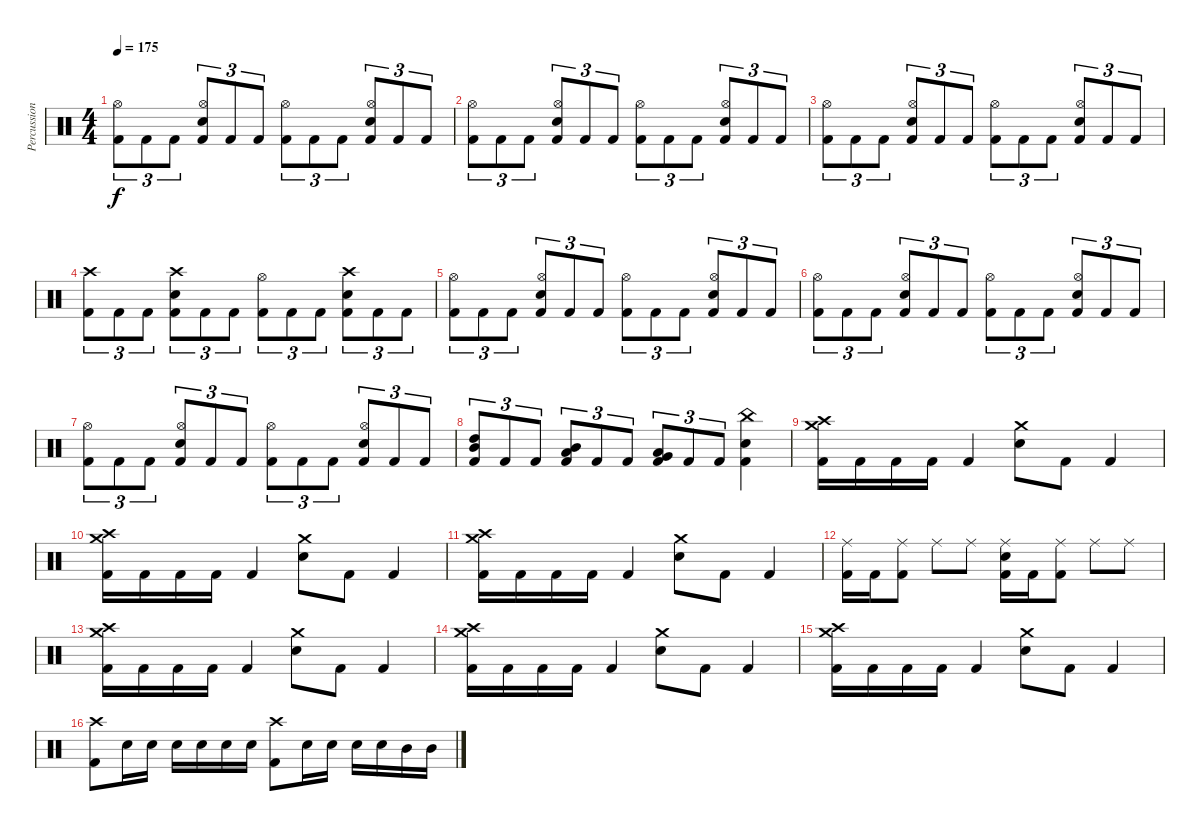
\track ("Percussion" "Percussion") {instrument percussion}
\staff {score}
\articulation defaults
\ts (4 4)
\tempo 175
\clef neutral
\ks c
("Kick (hit) 2" "Hi-Hat (open)").8{tu (3 2) dy f} "Kick (hit) 2".8{tu (3 2)} "Kick (hit) 2".8{tu (3 2)} ("Kick (hit) 2" "Electric Snare (hit)" "Hi-Hat (open)").8{tu (3 2)} "Kick (hit) 2".8{tu (3 2)} "Kick (hit) 2".8{tu (3 2)} ("Kick (hit) 2" "Hi-Hat (open)").8{tu (3 2)} "Kick (hit) 2".8{tu (3 2)} "Kick (hit) 2".8{tu (3 2)} ("Kick (hit) 2" "Electric Snare (hit)" "Hi-Hat (open)").8{tu (3 2)} "Kick (hit) 2".8{tu (3 2)} "Kick (hit) 2".8{tu (3 2)} |
("Kick (hit) 2" "Hi-Hat (open)").8{tu (3 2)} "Kick (hit) 2".8{tu (3 2)} "Kick (hit) 2".8{tu (3 2)} ("Kick (hit) 2" "Electric Snare (hit)" "Hi-Hat (open)").8{tu (3 2)} "Kick (hit) 2".8{tu (3 2)} "Kick (hit) 2".8{tu (3 2)} ("Kick (hit) 2" "Hi-Hat (open)").8{tu (3 2)} "Kick (hit) 2".8{tu (3 2)} "Kick (hit) 2".8{tu (3 2)} ("Kick (hit) 2" "Electric Snare (hit)" "Hi-Hat (open)").8{tu (3 2)} "Kick (hit) 2".8{tu (3 2)} "Kick (hit) 2".8{tu (3 2)} |
("Kick (hit) 2" "Hi-Hat (open)").8{tu (3 2)} "Kick (hit) 2".8{tu (3 2)} "Kick (hit) 2".8{tu (3 2)} ("Kick (hit) 2" "Electric Snare (hit)" "Hi-Hat (open)").8{tu (3 2)} "Kick (hit) 2".8{tu (3 2)} "Kick (hit) 2".8{tu (3 2)} ("Kick (hit) 2" "Hi-Hat (open)").8{tu (3 2)} "Kick (hit) 2".8{tu (3 2)} "Kick (hit) 2".8{tu (3 2)} ("Kick (hit) 2" "Electric Snare (hit)" "Hi-Hat (open)").8{tu (3 2)} "Kick (hit) 2".8{tu (3 2)} "Kick (hit) 2".8{tu (3 2)} |
("Kick (hit) 2" "Crash high (hit)").8{tu (3 2)} "Kick (hit) 2".8{tu (3 2)} "Kick (hit) 2".8{tu (3 2)} ("Kick (hit) 2" "Electric Snare (hit)" "Crash high (hit)").8{tu (3 2)} "Kick (hit) 2".8{tu (3 2)} "Kick (hit) 2".8{tu (3 2)} ("Kick (hit) 2" "Hi-Hat (open)").8{tu (3 2)} "Kick (hit) 2".8{tu (3 2)} "Kick (hit) 2".8{tu (3 2)} ("Kick (hit) 2" "Electric Snare (hit)" "Crash high (hit)").8{tu (3 2)} "Kick (hit) 2".8{tu (3 2)} "Kick (hit) 2".8{tu (3 2)} |
("Kick (hit) 2" "Hi-Hat (open)").8{tu (3 2)} "Kick (hit) 2".8{tu (3 2)} "Kick (hit) 2".8{tu (3 2)} ("Kick (hit) 2" "Electric Snare (hit)" "Hi-Hat (open)").8{tu (3 2)} "Kick (hit) 2".8{tu (3 2)} "Kick (hit) 2".8{tu (3 2)} ("Kick (hit) 2" "Hi-Hat (open)").8{tu (3 2)} "Kick (hit) 2".8{tu (3 2)} "Kick (hit) 2".8{tu (3 2)} ("Kick (hit) 2" "Electric Snare (hit)" "Hi-Hat (open)").8{tu (3 2)} "Kick (hit) 2".8{tu (3 2)} "Kick (hit) 2".8{tu (3 2)} |
("Kick (hit) 2" "Hi-Hat (open)").8{tu (3 2)} "Kick (hit) 2".8{tu (3 2)} "Kick (hit) 2".8{tu (3 2)} ("Kick (hit) 2" "Electric Snare (hit)" "Hi-Hat (open)").8{tu (3 2)} "Kick (hit) 2".8{tu (3 2)} "Kick (hit) 2".8{tu (3 2)} ("Kick (hit) 2" "Hi-Hat (open)").8{tu (3 2)} "Kick (hit) 2".8{tu (3 2)} "Kick (hit) 2".8{tu (3 2)} ("Kick (hit) 2" "Electric Snare (hit)" "Hi-Hat (open)").8{tu (3 2)} "Kick (hit) 2".8{tu (3 2)} "Kick (hit) 2".8{tu (3 2)} |
("Kick (hit) 2" "Hi-Hat (open)").8{tu (3 2)} "Kick (hit) 2".8{tu (3 2)} "Kick (hit) 2".8{tu (3 2)} ("Kick (hit) 2" "Electric Snare (hit)" "Hi-Hat (open)").8{tu (3 2)} "Kick (hit) 2".8{tu (3 2)} "Kick (hit) 2".8{tu (3 2)} ("Kick (hit) 2" "Hi-Hat (open)").8{tu (3 2)} "Kick (hit) 2".8{tu (3 2)} "Kick (hit) 2".8{tu (3 2)} ("Kick (hit) 2" "Electric Snare (hit)" "Hi-Hat (open)").8{tu (3 2)} "Kick (hit) 2".8{tu (3 2)} "Kick (hit) 2".8{tu (3 2)} |
("Kick (hit) 2" "High Tom (hit)" "Mid Tom (hit)").8{tu (3 2)} "Kick (hit) 2".8{tu (3 2)} "Kick (hit) 2".8{tu (3 2)} ("Kick (hit) 2" "Mid Tom (hit)" "Low Tom (hit)").8{tu (3 2)} "Kick (hit) 2".8{tu (3 2)} "Kick (hit) 2".8{tu (3 2)} ("Kick (hit) 2" "Low Tom (hit)" "Very Low Tom (hit)").8{tu (3 2)} "Kick (hit) 2".8{tu (3 2)} "Kick (hit) 2".8{tu (3 2)} ("Kick (hit) 2" "Electric Snare (hit)" "China (hit)").4 |
("Kick (hit) 2" "Crash medium (hit)" "Crash high (hit)").16 "Kick (hit) 2".16 "Kick (hit) 2".16 "Kick (hit) 2".16 "Kick (hit) 2".4 ("Electric Snare (hit)" "Crash medium (hit)").8 "Kick (hit) 2".8 "Kick (hit) 2".4 |
("Kick (hit) 2" "Crash medium (hit)" "Crash high (hit)").16 "Kick (hit) 2".16 "Kick (hit) 2".16 "Kick (hit) 2".16 "Kick (hit) 2".4 ("Electric Snare (hit)" "Crash medium (hit)").8 "Kick (hit) 2".8 "Kick (hit) 2".4 |
("Kick (hit) 2" "Crash medium (hit)" "Crash high (hit)").16 "Kick (hit) 2".16 "Kick (hit) 2".16 "Kick (hit) 2".16 "Kick (hit) 2".4 ("Electric Snare (hit)" "Crash medium (hit)").8 "Kick (hit) 2".8 "Kick (hit) 2".4 |
("Kick (hit) 2" "Ride (middle)").16 "Kick (hit) 2".16 ("Kick (hit) 2" "Ride (middle)").8 "Ride (middle)".8 "Ride (middle)".8 ("Kick (hit) 2" "Electric Snare (hit)" "Ride (middle)").16 "Kick (hit) 2".16 ("Kick (hit) 2" "Ride (middle)").8 "Ride (middle)".8 "Ride (middle)".8 |
("Kick (hit) 2" "Crash medium (hit)" "Crash high (hit)").16 "Kick (hit) 2".16 "Kick (hit) 2".16 "Kick (hit) 2".16 "Kick (hit) 2".4 ("Electric Snare (hit)" "Crash medium (hit)").8 "Kick (hit) 2".8 "Kick (hit) 2".4 |
("Kick (hit) 2" "Crash medium (hit)" "Crash high (hit)").16 "Kick (hit) 2".16 "Kick (hit) 2".16 "Kick (hit) 2".16 "Kick (hit) 2".4 ("Electric Snare (hit)" "Crash medium (hit)").8 "Kick (hit) 2".8 "Kick (hit) 2".4 |
("Kick (hit) 2" "Crash medium (hit)" "Crash high (hit)").16 "Kick (hit) 2".16 "Kick (hit) 2".16 "Kick (hit) 2".16 "Kick (hit) 2".4 ("Electric Snare (hit)" "Crash medium (hit)").8 "Kick (hit) 2".8 "Kick (hit) 2".4 |
("Kick (hit) 2" "Crash high (hit)").8 "Electric Snare (hit)".16 "Electric Snare (hit)".16 "Electric Snare (hit)".16 "Electric Snare (hit)".16 "Electric Snare (hit)".16 "Electric Snare (hit)".16 ("Kick (hit) 2" "Crash high (hit)").8 "Electric Snare (hit)".16 "Electric Snare (hit)".16 "Electric Snare (hit)".16 "Electric Snare (hit)".16 "Mid Tom (hit)".16 "Mid Tom (hit)".16
